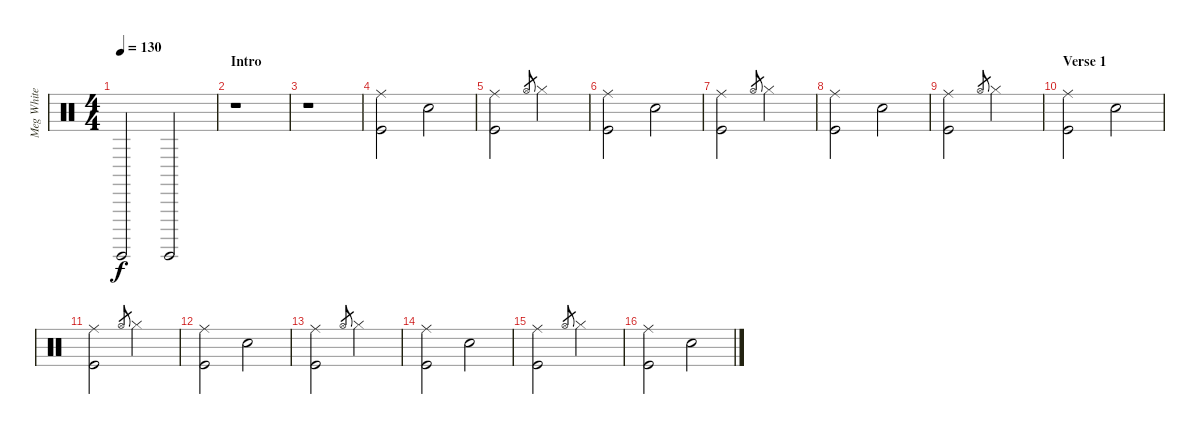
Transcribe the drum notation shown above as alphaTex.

\track ("Meg White (Drums)" "Meg White ") {instrument percussion}
\staff {score}
\articulation defaults
\ts (4 4)
\tempo 130
\clef neutral
\ks c "Surdo (hit)".2{dy f} "Surdo (hit)".2
|
\section ("" "Intro")
r.1 |
r.1 |
("Kick (hit)" "Ride (middle)").2 "Snare (hit) 2".2 |
("Kick (hit)" "Ride (middle)").2 "Hi-Hat (open)"{h}.8{gr} "Hi-Hat (closed)".2 |
("Kick (hit)" "Ride (middle)").2 "Snare (hit) 2".2 |
("Kick (hit)" "Ride (middle)").2 "Hi-Hat (open)"{h}.8{gr} "Hi-Hat (closed)".2 |
("Kick (hit)" "Ride (middle)").2 "Snare (hit) 2".2 |
("Kick (hit)" "Ride (middle)").2 "Hi-Hat (open)"{h}.8{gr} "Hi-Hat (closed)".2 |
\section ("" "Verse 1")
("Kick (hit)" "Ride (middle)").2 "Snare (hit) 2".2 |
("Kick (hit)" "Ride (middle)").2 "Hi-Hat (open)"{h}.8{gr} "Hi-Hat (closed)".2 |
("Kick (hit)" "Ride (middle)").2 "Snare (hit) 2".2 |
("Kick (hit)" "Ride (middle)").2 "Hi-Hat (open)"{h}.8{gr} "Hi-Hat (closed)".2 |
("Kick (hit)" "Ride (middle)").2 "Snare (hit) 2".2 |
("Kick (hit)" "Ride (middle)").2 "Hi-Hat (open)"{h}.8{gr} "Hi-Hat (closed)".2 |
("Kick (hit)" "Ride (middle)").2 "Snare (hit) 2".2
